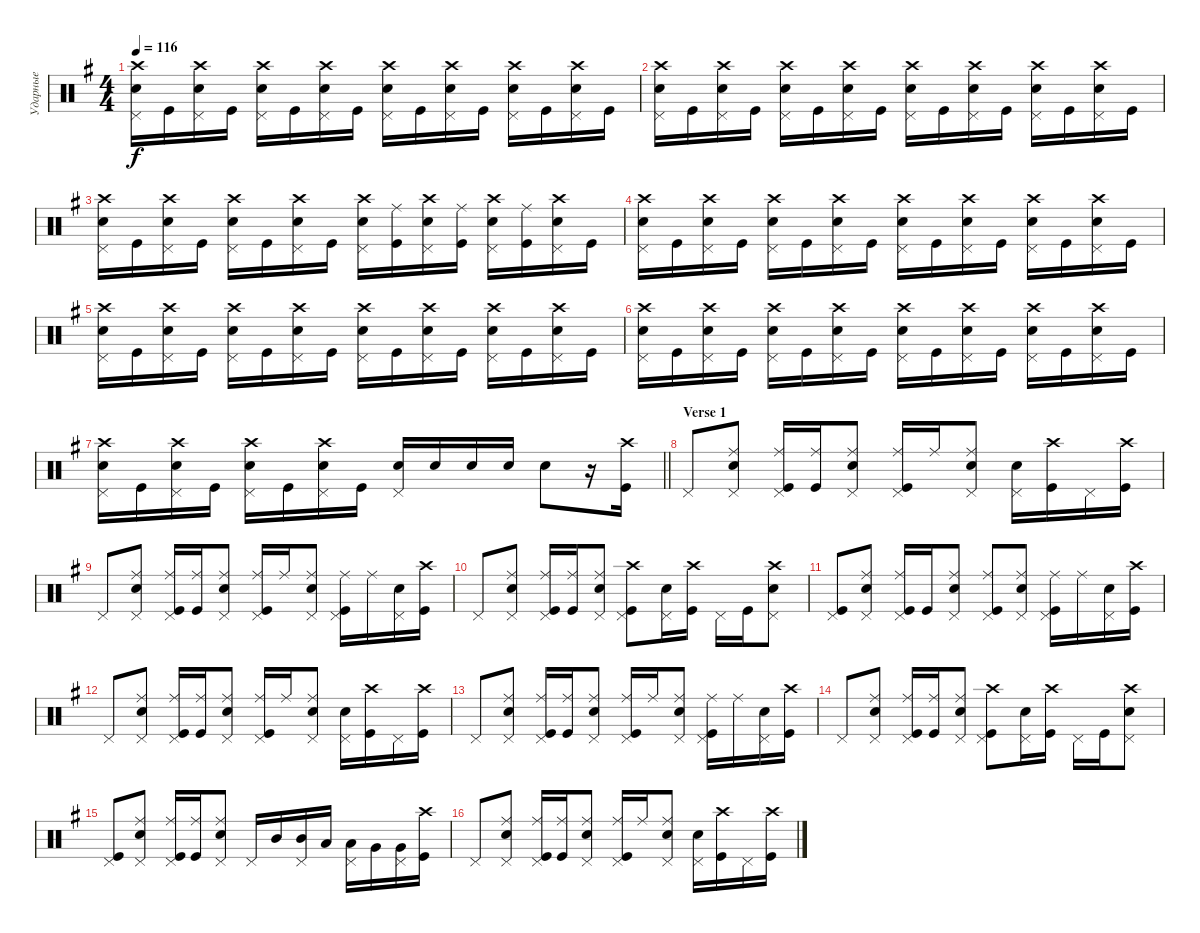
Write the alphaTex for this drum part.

\track ("Ударные" "Ударные") {instrument percussion}
\staff {score}
\articulation defaults
\ts (4 4)
\tempo 116
\clef neutral
\ks eminor
("Pedal Hi-Hat (hit)" "Snare (hit) 2" "Crash high (hit)").16{dy f} "Kick (hit)".16 ("Pedal Hi-Hat (hit)" "Snare (hit) 2" "Crash high (hit)").16 "Kick (hit)".16 ("Pedal Hi-Hat (hit)" "Snare (hit) 2" "Crash high (hit)").16 "Kick (hit)".16 ("Pedal Hi-Hat (hit)" "Snare (hit) 2" "Crash high (hit)").16 "Kick (hit)".16 ("Pedal Hi-Hat (hit)" "Snare (hit) 2" "Crash high (hit)").16 "Kick (hit)".16 ("Pedal Hi-Hat (hit)" "Snare (hit) 2" "Crash high (hit)").16 "Kick (hit)".16 ("Pedal Hi-Hat (hit)" "Snare (hit) 2" "Crash high (hit)").16 "Kick (hit)".16 ("Pedal Hi-Hat (hit)" "Snare (hit) 2" "Crash high (hit)").16 "Kick (hit)".16 |
("Pedal Hi-Hat (hit)" "Snare (hit) 2" "Crash high (hit)").16 "Kick (hit)".16 ("Pedal Hi-Hat (hit)" "Snare (hit) 2" "Crash high (hit)").16 "Kick (hit)".16 ("Pedal Hi-Hat (hit)" "Snare (hit) 2" "Crash high (hit)").16 "Kick (hit)".16 ("Pedal Hi-Hat (hit)" "Snare (hit) 2" "Crash high (hit)").16 "Kick (hit)".16 ("Pedal Hi-Hat (hit)" "Snare (hit) 2" "Crash high (hit)").16 "Kick (hit)".16 ("Pedal Hi-Hat (hit)" "Snare (hit) 2" "Crash high (hit)").16 "Kick (hit)".16 ("Pedal Hi-Hat (hit)" "Snare (hit) 2" "Crash high (hit)").16 "Kick (hit)".16 ("Pedal Hi-Hat (hit)" "Snare (hit) 2" "Crash high (hit)").16 "Kick (hit)".16 |
("Pedal Hi-Hat (hit)" "Snare (hit) 2" "Crash high (hit)").16 "Kick (hit)".16 ("Pedal Hi-Hat (hit)" "Snare (hit) 2" "Crash high (hit)").16 "Kick (hit)".16 ("Pedal Hi-Hat (hit)" "Snare (hit) 2" "Crash high (hit)").16 "Kick (hit)".16 ("Pedal Hi-Hat (hit)" "Snare (hit) 2" "Crash high (hit)").16 "Kick (hit)".16 ("Pedal Hi-Hat (hit)" "Snare (hit) 2" "Crash high (hit)").16 ("Kick (hit)" "Ride (middle)").16 ("Pedal Hi-Hat (hit)" "Snare (hit) 2" "Crash high (hit)").16 ("Kick (hit)" "Ride (middle)").16 ("Pedal Hi-Hat (hit)" "Snare (hit) 2" "Crash high (hit)").16 ("Kick (hit)" "Ride (middle)").16 ("Pedal Hi-Hat (hit)" "Snare (hit) 2" "Crash high (hit)").16 "Kick (hit)".16 |
("Pedal Hi-Hat (hit)" "Snare (hit) 2" "Crash high (hit)").16 "Kick (hit)".16 ("Pedal Hi-Hat (hit)" "Snare (hit) 2" "Crash high (hit)").16 "Kick (hit)".16 ("Pedal Hi-Hat (hit)" "Snare (hit) 2" "Crash high (hit)").16 "Kick (hit)".16 ("Pedal Hi-Hat (hit)" "Snare (hit) 2" "Crash high (hit)").16 "Kick (hit)".16 ("Pedal Hi-Hat (hit)" "Snare (hit) 2" "Crash high (hit)").16 "Kick (hit)".16 ("Pedal Hi-Hat (hit)" "Snare (hit) 2" "Crash high (hit)").16 "Kick (hit)".16 ("Pedal Hi-Hat (hit)" "Snare (hit) 2" "Crash high (hit)").16 "Kick (hit)".16 ("Pedal Hi-Hat (hit)" "Snare (hit) 2" "Crash high (hit)").16 "Kick (hit)".16 |
("Pedal Hi-Hat (hit)" "Snare (hit) 2" "Crash high (hit)").16 "Kick (hit)".16 ("Pedal Hi-Hat (hit)" "Snare (hit) 2" "Crash high (hit)").16 "Kick (hit)".16 ("Pedal Hi-Hat (hit)" "Snare (hit) 2" "Crash high (hit)").16 "Kick (hit)".16 ("Pedal Hi-Hat (hit)" "Snare (hit) 2" "Crash high (hit)").16 "Kick (hit)".16 ("Pedal Hi-Hat (hit)" "Snare (hit) 2" "Crash high (hit)").16 "Kick (hit)".16 ("Pedal Hi-Hat (hit)" "Snare (hit) 2" "Crash high (hit)").16 "Kick (hit)".16 ("Pedal Hi-Hat (hit)" "Snare (hit) 2" "Crash high (hit)").16 "Kick (hit)".16 ("Pedal Hi-Hat (hit)" "Snare (hit) 2" "Crash high (hit)").16 "Kick (hit)".16 |
("Pedal Hi-Hat (hit)" "Snare (hit) 2" "Crash high (hit)").16 "Kick (hit)".16 ("Pedal Hi-Hat (hit)" "Snare (hit) 2" "Crash high (hit)").16 "Kick (hit)".16 ("Pedal Hi-Hat (hit)" "Snare (hit) 2" "Crash high (hit)").16 "Kick (hit)".16 ("Pedal Hi-Hat (hit)" "Snare (hit) 2" "Crash high (hit)").16 "Kick (hit)".16 ("Pedal Hi-Hat (hit)" "Snare (hit) 2" "Crash high (hit)").16 "Kick (hit)".16 ("Pedal Hi-Hat (hit)" "Snare (hit) 2" "Crash high (hit)").16 "Kick (hit)".16 ("Pedal Hi-Hat (hit)" "Snare (hit) 2" "Crash high (hit)").16 "Kick (hit)".16 ("Pedal Hi-Hat (hit)" "Snare (hit) 2" "Crash high (hit)").16 "Kick (hit)".16 |
\barLineRight lightlight
("Pedal Hi-Hat (hit)" "Snare (hit) 2" "Crash high (hit)").16 "Kick (hit)".16 ("Pedal Hi-Hat (hit)" "Snare (hit) 2" "Crash high (hit)").16 "Kick (hit)".16 ("Pedal Hi-Hat (hit)" "Snare (hit) 2" "Crash high (hit)").16 "Kick (hit)".16 ("Pedal Hi-Hat (hit)" "Snare (hit) 2" "Crash high (hit)").16 "Kick (hit)".16 ("Snare (hit) 2" "Pedal Hi-Hat (hit)").16 "Snare (hit) 2".16 "Snare (hit) 2".16 "Snare (hit) 2".16 "Snare (hit) 2".8 r.16 ("Kick (hit)" "Crash high (hit)").16 |
\section ("" "Verse 1")
"Pedal Hi-Hat (hit)".8 ("Snare (hit) 2" "Pedal Hi-Hat (hit)" "Ride (middle)").8 ("Kick (hit)" "Pedal Hi-Hat (hit)" "Ride (middle)").16 ("Kick (hit)" "Ride (middle)").16 ("Snare (hit) 2" "Pedal Hi-Hat (hit)" "Ride (middle)").8 ("Pedal Hi-Hat (hit)" "Kick (hit)" "Ride (middle)").16 "Ride (middle)".16 ("Snare (hit) 2" "Pedal Hi-Hat (hit)" "Ride (middle)").8 ("Snare (hit) 2" "Pedal Hi-Hat (hit)").16 ("Kick (hit)" "Crash high (hit)").16 "Pedal Hi-Hat (hit)".16 ("Kick (hit)" "Crash high (hit)").16 |
"Pedal Hi-Hat (hit)".8 ("Snare (hit) 2" "Pedal Hi-Hat (hit)" "Ride (middle)").8 ("Kick (hit)" "Pedal Hi-Hat (hit)" "Ride (middle)").16 ("Kick (hit)" "Ride (middle)").16 ("Snare (hit) 2" "Pedal Hi-Hat (hit)" "Ride (middle)").8 ("Kick (hit)" "Pedal Hi-Hat (hit)" "Ride (middle)").16 "Ride (middle)".16 ("Snare (hit) 2" "Pedal Hi-Hat (hit)" "Ride (middle)").8 ("Kick (hit)" "Ride (middle)" "Pedal Hi-Hat (hit)").16 "Ride (middle)".16 ("Snare (hit) 2" "Pedal Hi-Hat (hit)").16 ("Kick (hit)" "Crash high (hit)").16 |
"Pedal Hi-Hat (hit)".8 ("Snare (hit) 2" "Ride (middle)" "Pedal Hi-Hat (hit)").8 ("Kick (hit)" "Ride (middle)" "Pedal Hi-Hat (hit)").16 ("Kick (hit)" "Ride (middle)").16 ("Snare (hit) 2" "Ride (middle)" "Pedal Hi-Hat (hit)").8 ("Kick (hit)" "Crash high (hit)" "Pedal Hi-Hat (hit)").8 ("Snare (hit) 2" "Pedal Hi-Hat (hit)").16 ("Kick (hit)" "Crash high (hit)").16 "Pedal Hi-Hat (hit)".16 "Kick (hit)".16 ("Snare (hit) 2" "Crash high (hit)" "Pedal Hi-Hat (hit)").8 |
("Kick (hit)" "Pedal Hi-Hat (hit)").8 ("Snare (hit) 2" "Pedal Hi-Hat (hit)" "Ride (middle)").8 ("Kick (hit)" "Pedal Hi-Hat (hit)" "Ride (middle)").16 "Kick (hit)".16 ("Snare (hit) 2" "Pedal Hi-Hat (hit)" "Ride (middle)").8 ("Kick (hit)" "Pedal Hi-Hat (hit)" "Ride (middle)").8{bd 120} ("Snare (hit) 2" "Pedal Hi-Hat (hit)" "Ride (middle)").8 ("Kick (hit)" "Pedal Hi-Hat (hit)" "Ride (middle)").16{bd 120} "Ride (middle)".16 ("Snare (hit) 2" "Pedal Hi-Hat (hit)").16 ("Kick (hit)" "Crash high (hit)").16 |
"Pedal Hi-Hat (hit)".8 ("Snare (hit) 2" "Pedal Hi-Hat (hit)" "Ride (middle)").8 ("Kick (hit)" "Pedal Hi-Hat (hit)" "Ride (middle)").16 ("Kick (hit)" "Ride (middle)").16 ("Snare (hit) 2" "Pedal Hi-Hat (hit)" "Ride (middle)").8 ("Pedal Hi-Hat (hit)" "Kick (hit)" "Ride (middle)").16 "Ride (middle)".16 ("Snare (hit) 2" "Pedal Hi-Hat (hit)" "Ride (middle)").8 ("Snare (hit) 2" "Pedal Hi-Hat (hit)").16 ("Kick (hit)" "Crash high (hit)").16 "Pedal Hi-Hat (hit)".16 ("Kick (hit)" "Crash high (hit)").16 |
"Pedal Hi-Hat (hit)".8 ("Snare (hit) 2" "Pedal Hi-Hat (hit)" "Ride (middle)").8 ("Kick (hit)" "Pedal Hi-Hat (hit)" "Ride (middle)").16 ("Kick (hit)" "Ride (middle)").16 ("Snare (hit) 2" "Pedal Hi-Hat (hit)" "Ride (middle)").8 ("Kick (hit)" "Pedal Hi-Hat (hit)" "Ride (middle)").16 "Ride (middle)".16 ("Snare (hit) 2" "Pedal Hi-Hat (hit)" "Ride (middle)").8 ("Kick (hit)" "Ride (middle)" "Pedal Hi-Hat (hit)").16 "Ride (middle)".16 ("Snare (hit) 2" "Pedal Hi-Hat (hit)").16 ("Kick (hit)" "Crash high (hit)").16 |
"Pedal Hi-Hat (hit)".8 ("Snare (hit) 2" "Ride (middle)" "Pedal Hi-Hat (hit)").8 ("Kick (hit)" "Ride (middle)" "Pedal Hi-Hat (hit)").16 ("Kick (hit)" "Ride (middle)").16 ("Snare (hit) 2" "Ride (middle)" "Pedal Hi-Hat (hit)").8 ("Kick (hit)" "Crash high (hit)" "Pedal Hi-Hat (hit)").8 ("Snare (hit) 2" "Pedal Hi-Hat (hit)").16 ("Kick (hit)" "Crash high (hit)").16 "Pedal Hi-Hat (hit)".16 "Kick (hit)".16 ("Snare (hit) 2" "Crash high (hit)" "Pedal Hi-Hat (hit)").8 |
("Kick (hit)" "Pedal Hi-Hat (hit)").8 ("Snare (hit) 2" "Ride (middle)" "Pedal Hi-Hat (hit)").8 ("Kick (hit)" "Ride (middle)" "Pedal Hi-Hat (hit)").16 ("Kick (hit)" "Ride (middle)").16 ("Snare (hit) 2" "Ride (middle)" "Pedal Hi-Hat (hit)").8 "Pedal Hi-Hat (hit)".16 "Mid Tom (hit)".16 ("Mid Tom (hit)" "Pedal Hi-Hat (hit)").16 "Low Tom (hit)".16 ("Low Tom (hit)" "Pedal Hi-Hat (hit)").16 "Very Low Tom (hit)".16 ("Pedal Hi-Hat (hit)" "Very Low Tom (hit)").16 ("Kick (hit)" "Crash high (hit)").16 |
"Pedal Hi-Hat (hit)".8 ("Snare (hit) 2" "Pedal Hi-Hat (hit)" "Ride (middle)").8 ("Kick (hit)" "Pedal Hi-Hat (hit)" "Ride (middle)").16 ("Kick (hit)" "Ride (middle)").16 ("Snare (hit) 2" "Pedal Hi-Hat (hit)" "Ride (middle)").8 ("Pedal Hi-Hat (hit)" "Kick (hit)" "Ride (middle)").16 "Ride (middle)".16 ("Snare (hit) 2" "Pedal Hi-Hat (hit)" "Ride (middle)").8 ("Snare (hit) 2" "Pedal Hi-Hat (hit)").16 ("Kick (hit)" "Crash high (hit)").16 "Pedal Hi-Hat (hit)".16 ("Kick (hit)" "Crash high (hit)").16
